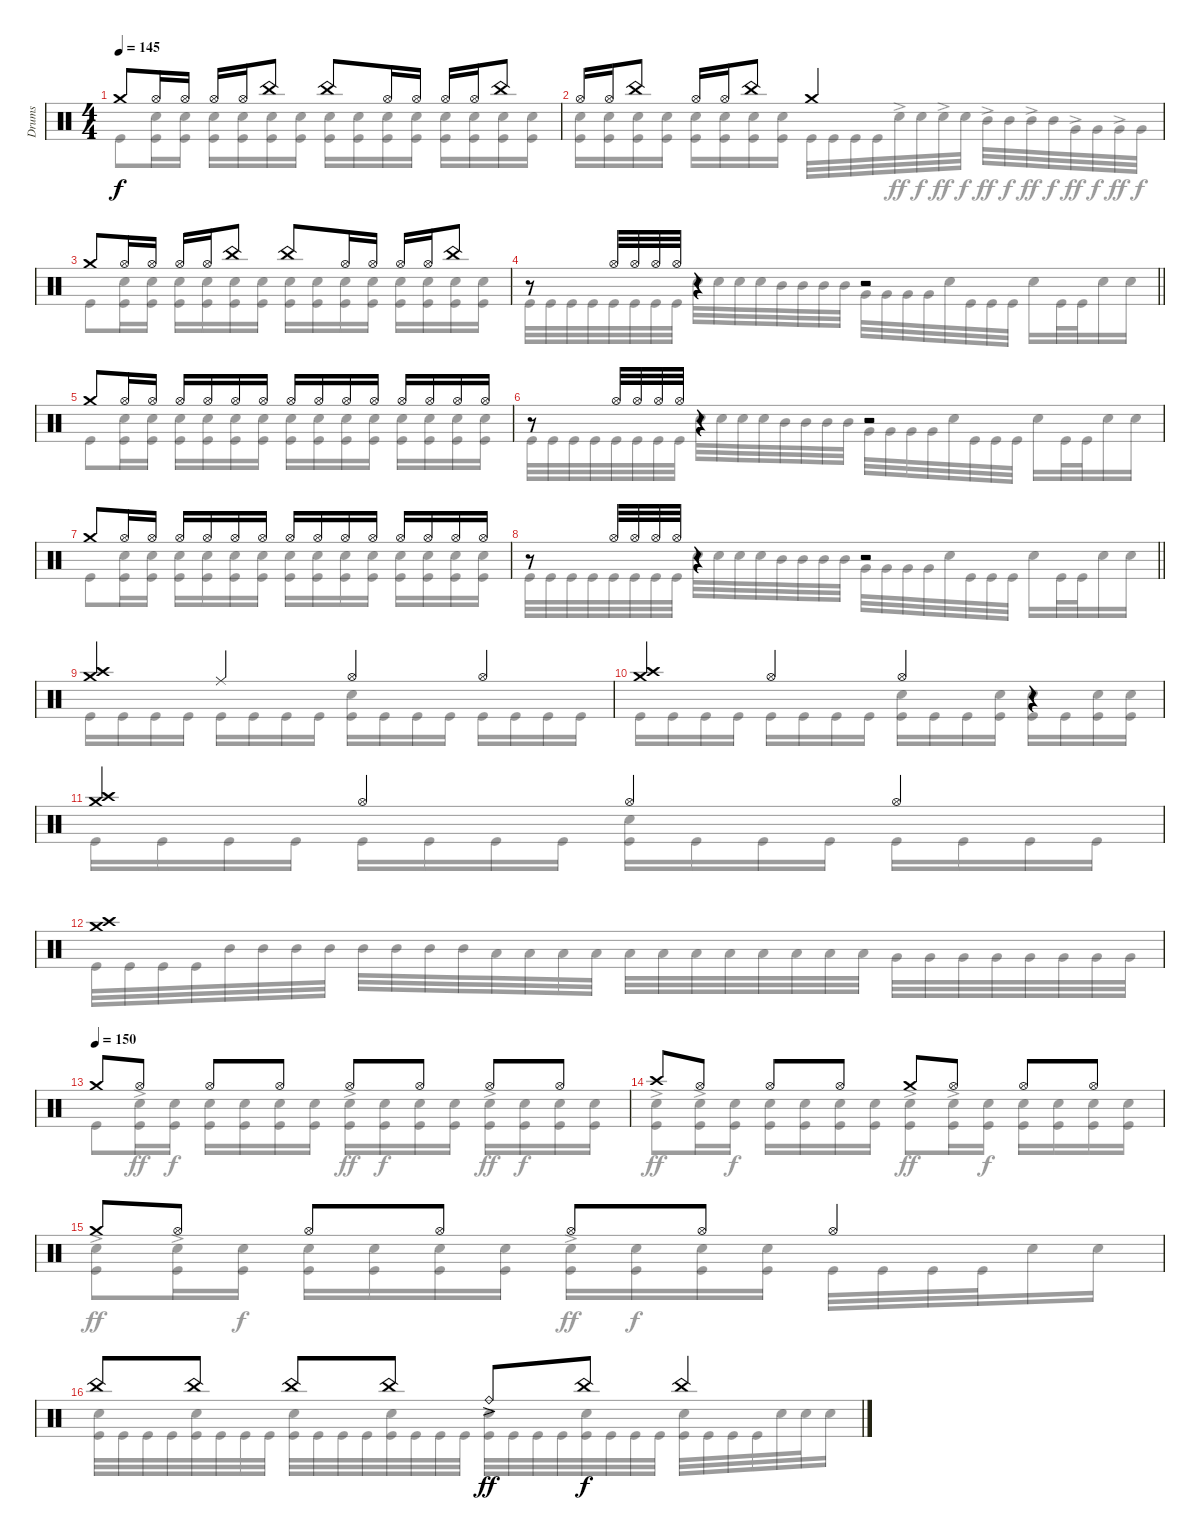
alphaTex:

\track ("Drums" "Drums") {instrument percussion}
\staff {score}
\articulation defaults
\voice
\ts (4 4)
\tempo 145
\clef neutral
\ks c "Crash medium (hit)".8{dy f} "Hi-Hat (open)".16 "Hi-Hat (open)".16 "Hi-Hat (open)".16 "Hi-Hat (open)".16 "China (hit)".8 "China (hit)".8 "Hi-Hat (open)".16 "Hi-Hat (open)".16 "Hi-Hat (open)".16 "Hi-Hat (open)".16 "China (hit)".8
|
"Hi-Hat (open)".16 "Hi-Hat (open)".16 "China (hit)".8 "Hi-Hat (open)".16 "Hi-Hat (open)".16 "China (hit)".8 "Crash medium (hit)".2 |
"Crash medium (hit)".8 "Hi-Hat (open)".16 "Hi-Hat (open)".16 "Hi-Hat (open)".16 "Hi-Hat (open)".16 "China (hit)".8 "China (hit)".8 "Hi-Hat (open)".16 "Hi-Hat (open)".16 "Hi-Hat (open)".16 "Hi-Hat (open)".16 "China (hit)".8 |
\barLineRight lightlight
r.8 "Hi-Hat (open)".32 "Hi-Hat (open)".32 "Hi-Hat (open)".32 "Hi-Hat (open)".32 r.4 r.2 |
"Crash medium (hit)".8 "Hi-Hat (open)".16 "Hi-Hat (open)".16 "Hi-Hat (open)".16 "Hi-Hat (open)".16 "Hi-Hat (open)".16 "Hi-Hat (open)".16 "Hi-Hat (open)".16 "Hi-Hat (open)".16 "Hi-Hat (open)".16 "Hi-Hat (open)".16 "Hi-Hat (open)".16 "Hi-Hat (open)".16 "Hi-Hat (open)".16 "Hi-Hat (open)".16 |
r.8 "Hi-Hat (open)".32 "Hi-Hat (open)".32 "Hi-Hat (open)".32 "Hi-Hat (open)".32 r.4 r.2 |
"Crash medium (hit)".8 "Hi-Hat (open)".16 "Hi-Hat (open)".16 "Hi-Hat (open)".16 "Hi-Hat (open)".16 "Hi-Hat (open)".16 "Hi-Hat (open)".16 "Hi-Hat (open)".16 "Hi-Hat (open)".16 "Hi-Hat (open)".16 "Hi-Hat (open)".16 "Hi-Hat (open)".16 "Hi-Hat (open)".16 "Hi-Hat (open)".16 "Hi-Hat (open)".16 |
\barLineRight lightlight
r.8 "Hi-Hat (open)".32 "Hi-Hat (open)".32 "Hi-Hat (open)".32 "Hi-Hat (open)".32 r.4 r.2 |
("Crash medium (hit)" "Crash high (hit)").4 "Ride (middle)".4 "Hi-Hat (open)".4 "Hi-Hat (open)".4 |
("Crash medium (hit)" "Crash high (hit)").4 "Hi-Hat (open)".4 "Hi-Hat (open)".4 r.4 |
("Crash medium (hit)" "Crash high (hit)").4 "Hi-Hat (open)".4 "Hi-Hat (open)".4 "Hi-Hat (open)".4 |
("Crash medium (hit)" "Crash high (hit)").1 |
\tempo (150)
"Crash medium (hit)".8 "Hi-Hat (open)".8 "Hi-Hat (open)".8 "Hi-Hat (open)".8 "Hi-Hat (open)".8 "Hi-Hat (open)".8 "Hi-Hat (open)".8 "Hi-Hat (open)".8 |
"Crash high (hit)".8 "Hi-Hat (open)".8 "Hi-Hat (open)".8 "Hi-Hat (open)".8 "Crash medium (hit)".8 "Hi-Hat (open)".8 "Hi-Hat (open)".8 "Hi-Hat (open)".8 |
"Crash medium (hit)".8 "Hi-Hat (open)".8 "Hi-Hat (open)".8 "Hi-Hat (open)".8 "Hi-Hat (open)".8 "Hi-Hat (open)".8 "Hi-Hat (open)".4 |
"China (hit)".8 "China (hit)".8 "China (hit)".8 "China (hit)".8 "Ride (bell)"{ac}.8{dy ff} "China (hit)".8{dy f} "China (hit)".4
\voice
\clef neutral
\ottava regular
\simile none
\ks c "Kick (hit)".8{dy f}
("Snare (hit) 2" "Kick (hit)").16 ("Snare (hit) 2" "Kick (hit)").16 ("Snare (hit) 2" "Kick (hit)").16 ("Snare (hit) 2" "Kick (hit)").16 ("Snare (hit) 2" "Kick (hit)").16 ("Snare (hit) 2" "Kick (hit)").16 ("Snare (hit) 2" "Kick (hit)").16 ("Snare (hit) 2" "Kick (hit)").16 ("Snare (hit) 2" "Kick (hit)").16 ("Snare (hit) 2" "Kick (hit)").16 ("Snare (hit) 2" "Kick (hit)").16 ("Snare (hit) 2" "Kick (hit)").16 ("Snare (hit) 2" "Kick (hit)").16 ("Snare (hit) 2" "Kick (hit)").16 |
("Snare (hit) 2" "Kick (hit)").16 ("Snare (hit) 2" "Kick (hit)").16 ("Snare (hit) 2" "Kick (hit)").16 ("Snare (hit) 2" "Kick (hit)").16 ("Snare (hit) 2" "Kick (hit)").16 ("Snare (hit) 2" "Kick (hit)").16 ("Snare (hit) 2" "Kick (hit)").16 ("Snare (hit) 2" "Kick (hit)").16 "Kick (hit)".32 "Kick (hit)".32 "Kick (hit)".32 "Kick (hit)".32 "Snare (hit) 2"{ac}.32{dy ff} "Snare (hit) 2".32{dy f} "Snare (hit) 2"{ac}.32{dy ff} "Snare (hit) 2".32{dy f} "Mid Tom (hit)"{ac}.32{dy ff} "Mid Tom (hit)".32{dy f} "Mid Tom (hit)"{ac}.32{dy ff} "Mid Tom (hit)".32{dy f} "Very Low Tom (hit)"{ac}.32{dy ff} "Very Low Tom (hit)".32{dy f} "Very Low Tom (hit)"{ac}.32{dy ff} "Very Low Tom (hit)".32{dy f} |
"Kick (hit)".8 ("Snare (hit) 2" "Kick (hit)").16 ("Snare (hit) 2" "Kick (hit)").16 ("Snare (hit) 2" "Kick (hit)").16 ("Snare (hit) 2" "Kick (hit)").16 ("Snare (hit) 2" "Kick (hit)").16 ("Snare (hit) 2" "Kick (hit)").16 ("Snare (hit) 2" "Kick (hit)").16 ("Snare (hit) 2" "Kick (hit)").16 ("Snare (hit) 2" "Kick (hit)").16 ("Snare (hit) 2" "Kick (hit)").16 ("Snare (hit) 2" "Kick (hit)").16 ("Snare (hit) 2" "Kick (hit)").16 ("Snare (hit) 2" "Kick (hit)").16 ("Snare (hit) 2" "Kick (hit)").16 |
\barLineRight lightlight "Kick (hit)".32 "Kick (hit)".32 "Kick (hit)".32 "Kick (hit)".32 "Kick (hit)".32 "Kick (hit)".32 "Kick (hit)".32 "Kick (hit)".32 "Snare (hit) 2".32 "Snare (hit) 2".32 "Snare (hit) 2".32 "Snare (hit) 2".32 "Mid Tom (hit)".32 "Mid Tom (hit)".32 "Mid Tom (hit)".32 "Mid Tom (hit)".32 "Very Low Tom (hit)".32 "Very Low Tom (hit)".32 "Very Low Tom (hit)".32 "Very Low Tom (hit)".32 "Snare (hit) 2".32 "Kick (hit)".32 "Kick (hit)".32 "Kick (hit)".32 "Snare (hit) 2".16 "Kick (hit)".32 "Kick (hit)".32 "Snare (hit) 2".16 "Snare (hit) 2".16
|
"Kick (hit)".8 ("Snare (hit) 2" "Kick (hit)").16 ("Snare (hit) 2" "Kick (hit)").16 ("Snare (hit) 2" "Kick (hit)").16 ("Snare (hit) 2" "Kick (hit)").16 ("Snare (hit) 2" "Kick (hit)").16 ("Snare (hit) 2" "Kick (hit)").16 ("Snare (hit) 2" "Kick (hit)").16 ("Snare (hit) 2" "Kick (hit)").16 ("Snare (hit) 2" "Kick (hit)").16 ("Snare (hit) 2" "Kick (hit)").16 ("Snare (hit) 2" "Kick (hit)").16 ("Snare (hit) 2" "Kick (hit)").16 ("Snare (hit) 2" "Kick (hit)").16 ("Snare (hit) 2" "Kick (hit)").16 |
"Kick (hit)".32 "Kick (hit)".32 "Kick (hit)".32 "Kick (hit)".32 "Kick (hit)".32 "Kick (hit)".32 "Kick (hit)".32 "Kick (hit)".32 "Snare (hit) 2".32 "Snare (hit) 2".32 "Snare (hit) 2".32 "Snare (hit) 2".32 "Mid Tom (hit)".32 "Mid Tom (hit)".32 "Mid Tom (hit)".32 "Mid Tom (hit)".32 "Very Low Tom (hit)".32 "Very Low Tom (hit)".32 "Very Low Tom (hit)".32 "Very Low Tom (hit)".32 "Snare (hit) 2".32 "Kick (hit)".32 "Kick (hit)".32 "Kick (hit)".32 "Snare (hit) 2".16 "Kick (hit)".32 "Kick (hit)".32 "Snare (hit) 2".16 "Snare (hit) 2".16 |
"Kick (hit)".8 ("Snare (hit) 2" "Kick (hit)").16 ("Snare (hit) 2" "Kick (hit)").16 ("Snare (hit) 2" "Kick (hit)").16 ("Snare (hit) 2" "Kick (hit)").16 ("Snare (hit) 2" "Kick (hit)").16 ("Snare (hit) 2" "Kick (hit)").16 ("Snare (hit) 2" "Kick (hit)").16 ("Snare (hit) 2" "Kick (hit)").16 ("Snare (hit) 2" "Kick (hit)").16 ("Snare (hit) 2" "Kick (hit)").16 ("Snare (hit) 2" "Kick (hit)").16 ("Snare (hit) 2" "Kick (hit)").16 ("Snare (hit) 2" "Kick (hit)").16 ("Snare (hit) 2" "Kick (hit)").16 |
\barLineRight lightlight "Kick (hit)".32 "Kick (hit)".32 "Kick (hit)".32 "Kick (hit)".32 "Kick (hit)".32 "Kick (hit)".32 "Kick (hit)".32 "Kick (hit)".32 "Snare (hit) 2".32 "Snare (hit) 2".32 "Snare (hit) 2".32 "Snare (hit) 2".32 "Mid Tom (hit)".32 "Mid Tom (hit)".32 "Mid Tom (hit)".32 "Mid Tom (hit)".32 "Very Low Tom (hit)".32 "Very Low Tom (hit)".32 "Very Low Tom (hit)".32 "Very Low Tom (hit)".32 "Snare (hit) 2".32 "Kick (hit)".32 "Kick (hit)".32 "Kick (hit)".32 "Snare (hit) 2".16 "Kick (hit)".32 "Kick (hit)".32 "Snare (hit) 2".16 "Snare (hit) 2".16
|
"Kick (hit)".16 "Kick (hit)".16 "Kick (hit)".16 "Kick (hit)".16 "Kick (hit)".16 "Kick (hit)".16 "Kick (hit)".16 "Kick (hit)".16 ("Snare (hit) 2" "Kick (hit)").16 "Kick (hit)".16 "Kick (hit)".16 "Kick (hit)".16 "Kick (hit)".16 "Kick (hit)".16 "Kick (hit)".16 "Kick (hit)".16 |
"Kick (hit)".16 "Kick (hit)".16 "Kick (hit)".16 "Kick (hit)".16 "Kick (hit)".16 "Kick (hit)".16 "Kick (hit)".16 "Kick (hit)".16 ("Snare (hit) 2" "Kick (hit)").16 "Kick (hit)".16 "Kick (hit)".16 ("Snare (hit) 2" "Kick (hit)").16 ("Snare (hit) 2" "Kick (hit)").16 "Kick (hit)".16 ("Snare (hit) 2" "Kick (hit)").16 ("Snare (hit) 2" "Kick (hit)").16 |
"Kick (hit)".16 "Kick (hit)".16 "Kick (hit)".16 "Kick (hit)".16 "Kick (hit)".16 "Kick (hit)".16 "Kick (hit)".16 "Kick (hit)".16 ("Snare (hit) 2" "Kick (hit)").16 "Kick (hit)".16 "Kick (hit)".16 "Kick (hit)".16 "Kick (hit)".16 "Kick (hit)".16 "Kick (hit)".16 "Kick (hit)".16 |
"Kick (hit)".32 "Kick (hit)".32 "Kick (hit)".32 "Kick (hit)".32 "Mid Tom (hit)".32 "Mid Tom (hit)".32 "Mid Tom (hit)".32 "Mid Tom (hit)".32 "Mid Tom (hit)".32 "Mid Tom (hit)".32 "Mid Tom (hit)".32 "Mid Tom (hit)".32 "Low Tom (hit)".32 "Low Tom (hit)".32 "Low Tom (hit)".32 "Low Tom (hit)".32 "Low Tom (hit)".32 "Low Tom (hit)".32 "Low Tom (hit)".32 "Low Tom (hit)".32 "Low Tom (hit)".32 "Low Tom (hit)".32 "Low Tom (hit)".32 "Low Tom (hit)".32 "Very Low Tom (hit)".32 "Very Low Tom (hit)".32 "Very Low Tom (hit)".32 "Very Low Tom (hit)".32 "Very Low Tom (hit)".32 "Very Low Tom (hit)".32 "Very Low Tom (hit)".32 "Very Low Tom (hit)".32 |
"Kick (hit)".8 ("Snare (hit) 2"{ac} "Kick (hit)").16{dy ff} ("Snare (hit) 2" "Kick (hit)").16{dy f} ("Snare (hit) 2" "Kick (hit)").16 ("Snare (hit) 2" "Kick (hit)").16 ("Snare (hit) 2" "Kick (hit)").16 ("Snare (hit) 2" "Kick (hit)").16 ("Snare (hit) 2"{ac} "Kick (hit)").16{dy ff} ("Snare (hit) 2" "Kick (hit)").16{dy f} ("Snare (hit) 2" "Kick (hit)").16 ("Snare (hit) 2" "Kick (hit)").16 ("Snare (hit) 2"{ac} "Kick (hit)").16{dy ff} ("Snare (hit) 2" "Kick (hit)").16{dy f} ("Snare (hit) 2" "Kick (hit)").16 ("Snare (hit) 2" "Kick (hit)").16 |
("Snare (hit) 2"{ac} "Kick (hit)").8{dy ff} ("Snare (hit) 2"{ac} "Kick (hit)").16 ("Snare (hit) 2" "Kick (hit)").16{dy f} ("Snare (hit) 2" "Kick (hit)").16 ("Snare (hit) 2" "Kick (hit)").16 ("Snare (hit) 2" "Kick (hit)").16 ("Snare (hit) 2" "Kick (hit)").16 ("Snare (hit) 2"{ac} "Kick (hit)").8{dy ff} ("Snare (hit) 2"{ac} "Kick (hit)").16 ("Snare (hit) 2" "Kick (hit)").16{dy f} ("Snare (hit) 2" "Kick (hit)").16 ("Snare (hit) 2" "Kick (hit)").16 ("Snare (hit) 2" "Kick (hit)").16 ("Snare (hit) 2" "Kick (hit)").16 |
("Snare (hit) 2"{ac} "Kick (hit)").8{dy ff} ("Snare (hit) 2"{ac} "Kick (hit)").16 ("Snare (hit) 2" "Kick (hit)").16{dy f} ("Snare (hit) 2" "Kick (hit)").16 ("Snare (hit) 2" "Kick (hit)").16 ("Snare (hit) 2" "Kick (hit)").16 ("Snare (hit) 2" "Kick (hit)").16 ("Snare (hit) 2"{ac} "Kick (hit)").16{dy ff} ("Snare (hit) 2" "Kick (hit)").16{dy f} ("Snare (hit) 2" "Kick (hit)").16 ("Snare (hit) 2" "Kick (hit)").16 "Kick (hit)".32 "Kick (hit)".32 "Kick (hit)".32 "Kick (hit)".32 "Snare (hit) 2".16 "Snare (hit) 2".16 |
("Snare (hit) 2" "Kick (hit)").32 "Kick (hit)".32 "Kick (hit)".32 "Kick (hit)".32 ("Snare (hit) 2" "Kick (hit)").32 "Kick (hit)".32 "Kick (hit)".32 "Kick (hit)".32 ("Snare (hit) 2" "Kick (hit)").32 "Kick (hit)".32 "Kick (hit)".32 "Kick (hit)".32 ("Snare (hit) 2" "Kick (hit)").32 "Kick (hit)".32 "Kick (hit)".32 "Kick (hit)".32 ("Snare (hit) 2" "Kick (hit)").32 "Kick (hit)".32 "Kick (hit)".32 "Kick (hit)".32 ("Snare (hit) 2" "Kick (hit)").32 "Kick (hit)".32 "Kick (hit)".32 "Kick (hit)".32 ("Snare (hit) 2" "Kick (hit)").32 "Kick (hit)".32 "Kick (hit)".32 "Kick (hit)".32 "Snare (hit) 2".32 "Snare (hit) 2".32 "Snare (hit) 2".16
